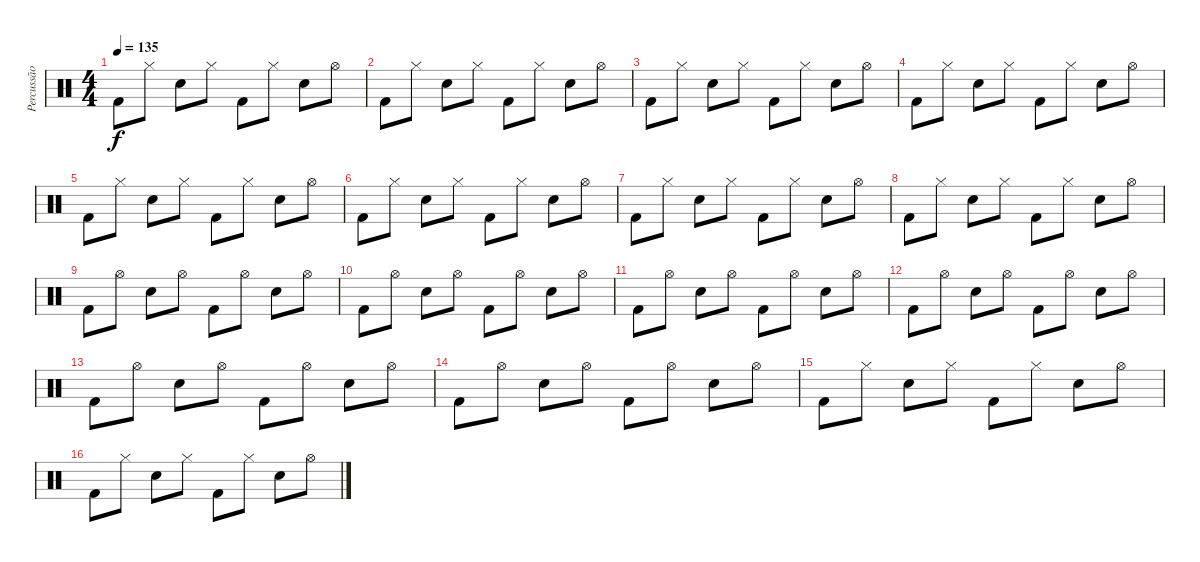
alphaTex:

\track ("Percussão" "Percussão") {instrument percussion}
\staff {score}
\articulation defaults
\ts (4 4)
\tempo 135
\clef neutral
\ks c "Kick (hit) 2".8{dy f} "Hi-Hat (closed)".8 "Electric Snare (hit)".8 "Hi-Hat (closed)".8 "Kick (hit) 2".8 "Hi-Hat (closed)".8 "Electric Snare (hit)".8 "Hi-Hat (open)".8
|
"Kick (hit) 2".8 "Hi-Hat (closed)".8 "Electric Snare (hit)".8 "Hi-Hat (closed)".8 "Kick (hit) 2".8 "Hi-Hat (closed)".8 "Electric Snare (hit)".8 "Hi-Hat (open)".8 |
"Kick (hit) 2".8 "Hi-Hat (closed)".8 "Electric Snare (hit)".8 "Hi-Hat (closed)".8 "Kick (hit) 2".8 "Hi-Hat (closed)".8 "Electric Snare (hit)".8 "Hi-Hat (open)".8 |
"Kick (hit) 2".8 "Hi-Hat (closed)".8 "Electric Snare (hit)".8 "Hi-Hat (closed)".8 "Kick (hit) 2".8 "Hi-Hat (closed)".8 "Electric Snare (hit)".8 "Hi-Hat (open)".8 |
"Kick (hit) 2".8 "Hi-Hat (closed)".8 "Electric Snare (hit)".8 "Hi-Hat (closed)".8 "Kick (hit) 2".8 "Hi-Hat (closed)".8 "Electric Snare (hit)".8 "Hi-Hat (open)".8 |
"Kick (hit) 2".8 "Hi-Hat (closed)".8 "Electric Snare (hit)".8 "Hi-Hat (closed)".8 "Kick (hit) 2".8 "Hi-Hat (closed)".8 "Electric Snare (hit)".8 "Hi-Hat (open)".8 |
"Kick (hit) 2".8 "Hi-Hat (closed)".8 "Electric Snare (hit)".8 "Hi-Hat (closed)".8 "Kick (hit) 2".8 "Hi-Hat (closed)".8 "Electric Snare (hit)".8 "Hi-Hat (open)".8 |
"Kick (hit) 2".8 "Hi-Hat (closed)".8 "Electric Snare (hit)".8 "Hi-Hat (closed)".8 "Kick (hit) 2".8 "Hi-Hat (closed)".8 "Electric Snare (hit)".8 "Hi-Hat (open)".8 |
"Kick (hit) 2".8 "Hi-Hat (open)".8 "Electric Snare (hit)".8 "Hi-Hat (open)".8 "Kick (hit) 2".8 "Hi-Hat (open)".8 "Electric Snare (hit)".8 "Hi-Hat (open)".8 |
"Kick (hit) 2".8 "Hi-Hat (open)".8 "Electric Snare (hit)".8 "Hi-Hat (open)".8 "Kick (hit) 2".8 "Hi-Hat (open)".8 "Electric Snare (hit)".8 "Hi-Hat (open)".8 |
"Kick (hit) 2".8 "Hi-Hat (open)".8 "Electric Snare (hit)".8 "Hi-Hat (open)".8 "Kick (hit) 2".8 "Hi-Hat (open)".8 "Electric Snare (hit)".8 "Hi-Hat (open)".8 |
"Kick (hit) 2".8 "Hi-Hat (open)".8 "Electric Snare (hit)".8 "Hi-Hat (open)".8 "Kick (hit) 2".8 "Hi-Hat (open)".8 "Electric Snare (hit)".8 "Hi-Hat (open)".8 |
"Kick (hit) 2".8 "Hi-Hat (open)".8 "Electric Snare (hit)".8 "Hi-Hat (open)".8 "Kick (hit) 2".8 "Hi-Hat (open)".8 "Electric Snare (hit)".8 "Hi-Hat (open)".8 |
"Kick (hit) 2".8 "Hi-Hat (open)".8 "Electric Snare (hit)".8 "Hi-Hat (open)".8 "Kick (hit) 2".8 "Hi-Hat (open)".8 "Electric Snare (hit)".8 "Hi-Hat (open)".8 |
"Kick (hit) 2".8 "Hi-Hat (closed)".8 "Electric Snare (hit)".8 "Hi-Hat (closed)".8 "Kick (hit) 2".8 "Hi-Hat (closed)".8 "Electric Snare (hit)".8 "Hi-Hat (open)".8 |
"Kick (hit) 2".8 "Hi-Hat (closed)".8 "Electric Snare (hit)".8 "Hi-Hat (closed)".8 "Kick (hit) 2".8 "Hi-Hat (closed)".8 "Electric Snare (hit)".8 "Hi-Hat (open)".8
